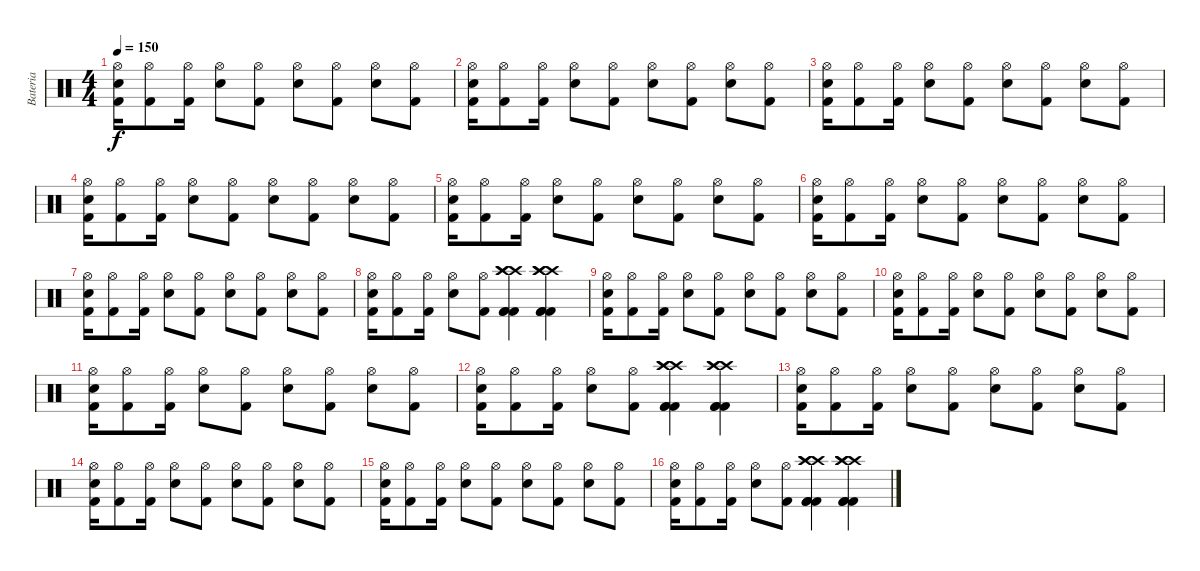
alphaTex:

\track ("Bateria" "Bateria") {instrument percussion}
\staff {score}
\articulation defaults
\ts (4 4)
\tempo 150
\clef neutral
\ks c
("Hi-Hat (open)" "Electric Snare (hit)" "Kick (hit) 2").16{dy f} ("Hi-Hat (open)" "Kick (hit) 2").8 ("Hi-Hat (open)" "Kick (hit) 2").16 ("Hi-Hat (open)" "Electric Snare (hit)").8 ("Hi-Hat (open)" "Kick (hit) 2").8 ("Hi-Hat (open)" "Electric Snare (hit)").8 ("Hi-Hat (open)" "Kick (hit) 2").8 ("Hi-Hat (open)" "Electric Snare (hit)").8 ("Hi-Hat (open)" "Kick (hit) 2").8 |
("Hi-Hat (open)" "Electric Snare (hit)" "Kick (hit) 2").16 ("Hi-Hat (open)" "Kick (hit) 2").8 ("Hi-Hat (open)" "Kick (hit) 2").16 ("Hi-Hat (open)" "Electric Snare (hit)").8 ("Hi-Hat (open)" "Kick (hit) 2").8 ("Hi-Hat (open)" "Electric Snare (hit)").8 ("Hi-Hat (open)" "Kick (hit) 2").8 ("Hi-Hat (open)" "Electric Snare (hit)").8 ("Hi-Hat (open)" "Kick (hit) 2").8 |
("Hi-Hat (open)" "Electric Snare (hit)" "Kick (hit) 2").16 ("Hi-Hat (open)" "Kick (hit) 2").8 ("Hi-Hat (open)" "Kick (hit) 2").16 ("Hi-Hat (open)" "Electric Snare (hit)").8 ("Hi-Hat (open)" "Kick (hit) 2").8 ("Hi-Hat (open)" "Electric Snare (hit)").8 ("Hi-Hat (open)" "Kick (hit) 2").8 ("Hi-Hat (open)" "Electric Snare (hit)").8 ("Hi-Hat (open)" "Kick (hit) 2").8 |
("Hi-Hat (open)" "Electric Snare (hit)" "Kick (hit) 2").16 ("Hi-Hat (open)" "Kick (hit) 2").8 ("Hi-Hat (open)" "Kick (hit) 2").16 ("Hi-Hat (open)" "Electric Snare (hit)").8 ("Hi-Hat (open)" "Kick (hit) 2").8 ("Hi-Hat (open)" "Electric Snare (hit)").8 ("Hi-Hat (open)" "Kick (hit) 2").8 ("Hi-Hat (open)" "Electric Snare (hit)").8 ("Hi-Hat (open)" "Kick (hit) 2").8 |
("Hi-Hat (open)" "Electric Snare (hit)" "Kick (hit) 2").16 ("Hi-Hat (open)" "Kick (hit) 2").8 ("Hi-Hat (open)" "Kick (hit) 2").16 ("Hi-Hat (open)" "Electric Snare (hit)").8 ("Hi-Hat (open)" "Kick (hit) 2").8 ("Hi-Hat (open)" "Electric Snare (hit)").8 ("Hi-Hat (open)" "Kick (hit) 2").8 ("Hi-Hat (open)" "Electric Snare (hit)").8 ("Hi-Hat (open)" "Kick (hit) 2").8 |
("Hi-Hat (open)" "Electric Snare (hit)" "Kick (hit) 2").16 ("Hi-Hat (open)" "Kick (hit) 2").8 ("Hi-Hat (open)" "Kick (hit) 2").16 ("Hi-Hat (open)" "Electric Snare (hit)").8 ("Hi-Hat (open)" "Kick (hit) 2").8 ("Hi-Hat (open)" "Electric Snare (hit)").8 ("Hi-Hat (open)" "Kick (hit) 2").8 ("Hi-Hat (open)" "Electric Snare (hit)").8 ("Hi-Hat (open)" "Kick (hit) 2").8 |
("Hi-Hat (open)" "Electric Snare (hit)" "Kick (hit) 2").16 ("Hi-Hat (open)" "Kick (hit) 2").8 ("Hi-Hat (open)" "Kick (hit) 2").16 ("Hi-Hat (open)" "Electric Snare (hit)").8 ("Hi-Hat (open)" "Kick (hit) 2").8 ("Hi-Hat (open)" "Electric Snare (hit)").8 ("Hi-Hat (open)" "Kick (hit) 2").8 ("Hi-Hat (open)" "Electric Snare (hit)").8 ("Hi-Hat (open)" "Kick (hit) 2").8 |
("Hi-Hat (open)" "Electric Snare (hit)" "Kick (hit) 2").16 ("Hi-Hat (open)" "Kick (hit) 2").8 ("Hi-Hat (open)" "Kick (hit) 2").16 ("Hi-Hat (open)" "Electric Snare (hit)").8 ("Hi-Hat (open)" "Kick (hit) 2").8 ("Crash high (hit)" "Crash high (hit)" "Crash high (hit)" "Kick (hit) 2" "Kick (hit) 2" "Kick (hit) 2").4 ("Crash high (hit)" "Crash high (hit)" "Crash high (hit)" "Kick (hit) 2" "Kick (hit) 2" "Kick (hit) 2").4 |
("Hi-Hat (open)" "Electric Snare (hit)" "Kick (hit) 2").16 ("Hi-Hat (open)" "Kick (hit) 2").8 ("Hi-Hat (open)" "Kick (hit) 2").16 ("Hi-Hat (open)" "Electric Snare (hit)").8 ("Hi-Hat (open)" "Kick (hit) 2").8 ("Hi-Hat (open)" "Electric Snare (hit)").8 ("Hi-Hat (open)" "Kick (hit) 2").8 ("Hi-Hat (open)" "Electric Snare (hit)").8 ("Hi-Hat (open)" "Kick (hit) 2").8 |
("Hi-Hat (open)" "Electric Snare (hit)" "Kick (hit) 2").16 ("Hi-Hat (open)" "Kick (hit) 2").8 ("Hi-Hat (open)" "Kick (hit) 2").16 ("Hi-Hat (open)" "Electric Snare (hit)").8 ("Hi-Hat (open)" "Kick (hit) 2").8 ("Hi-Hat (open)" "Electric Snare (hit)").8 ("Hi-Hat (open)" "Kick (hit) 2").8 ("Hi-Hat (open)" "Electric Snare (hit)").8 ("Hi-Hat (open)" "Kick (hit) 2").8 |
("Hi-Hat (open)" "Electric Snare (hit)" "Kick (hit) 2").16 ("Hi-Hat (open)" "Kick (hit) 2").8 ("Hi-Hat (open)" "Kick (hit) 2").16 ("Hi-Hat (open)" "Electric Snare (hit)").8 ("Hi-Hat (open)" "Kick (hit) 2").8 ("Hi-Hat (open)" "Electric Snare (hit)").8 ("Hi-Hat (open)" "Kick (hit) 2").8 ("Hi-Hat (open)" "Electric Snare (hit)").8 ("Hi-Hat (open)" "Kick (hit) 2").8 |
("Hi-Hat (open)" "Electric Snare (hit)" "Kick (hit) 2").16 ("Hi-Hat (open)" "Kick (hit) 2").8 ("Hi-Hat (open)" "Kick (hit) 2").16 ("Hi-Hat (open)" "Electric Snare (hit)").8 ("Hi-Hat (open)" "Kick (hit) 2").8 ("Crash high (hit)" "Crash high (hit)" "Crash high (hit)" "Kick (hit) 2" "Kick (hit) 2" "Kick (hit) 2").4 ("Crash high (hit)" "Crash high (hit)" "Crash high (hit)" "Kick (hit) 2" "Kick (hit) 2" "Kick (hit) 2").4 |
("Hi-Hat (open)" "Electric Snare (hit)" "Kick (hit) 2").16 ("Hi-Hat (open)" "Kick (hit) 2").8 ("Hi-Hat (open)" "Kick (hit) 2").16 ("Hi-Hat (open)" "Electric Snare (hit)").8 ("Hi-Hat (open)" "Kick (hit) 2").8 ("Hi-Hat (open)" "Electric Snare (hit)").8 ("Hi-Hat (open)" "Kick (hit) 2").8 ("Hi-Hat (open)" "Electric Snare (hit)").8 ("Hi-Hat (open)" "Kick (hit) 2").8 |
("Hi-Hat (open)" "Electric Snare (hit)" "Kick (hit) 2").16 ("Hi-Hat (open)" "Kick (hit) 2").8 ("Hi-Hat (open)" "Kick (hit) 2").16 ("Hi-Hat (open)" "Electric Snare (hit)").8 ("Hi-Hat (open)" "Kick (hit) 2").8 ("Hi-Hat (open)" "Electric Snare (hit)").8 ("Hi-Hat (open)" "Kick (hit) 2").8 ("Hi-Hat (open)" "Electric Snare (hit)").8 ("Hi-Hat (open)" "Kick (hit) 2").8 |
("Hi-Hat (open)" "Electric Snare (hit)" "Kick (hit) 2").16 ("Hi-Hat (open)" "Kick (hit) 2").8 ("Hi-Hat (open)" "Kick (hit) 2").16 ("Hi-Hat (open)" "Electric Snare (hit)").8 ("Hi-Hat (open)" "Kick (hit) 2").8 ("Hi-Hat (open)" "Electric Snare (hit)").8 ("Hi-Hat (open)" "Kick (hit) 2").8 ("Hi-Hat (open)" "Electric Snare (hit)").8 ("Hi-Hat (open)" "Kick (hit) 2").8 |
("Hi-Hat (open)" "Electric Snare (hit)" "Kick (hit) 2").16 ("Hi-Hat (open)" "Kick (hit) 2").8 ("Hi-Hat (open)" "Kick (hit) 2").16 ("Hi-Hat (open)" "Electric Snare (hit)").8 ("Hi-Hat (open)" "Kick (hit) 2").8 ("Crash high (hit)" "Crash high (hit)" "Crash high (hit)" "Kick (hit) 2" "Kick (hit) 2" "Kick (hit) 2").4 ("Crash high (hit)" "Crash high (hit)" "Crash high (hit)" "Kick (hit) 2" "Kick (hit) 2" "Kick (hit) 2").4
